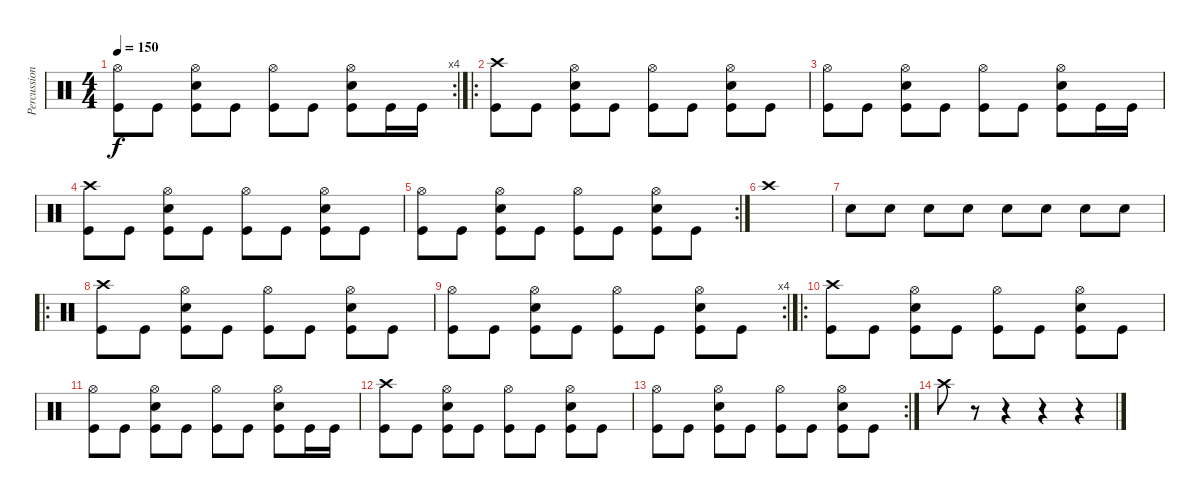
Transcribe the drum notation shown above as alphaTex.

\track ("Percussion" "Percussion") {instrument percussion}
\staff {score}
\articulation defaults
\rc 4
\ts (4 4)
\tempo 150
\clef neutral
\ks c
("Hi-Hat (open)" "Kick (hit)").8{dy f} "Kick (hit)".8 ("Hi-Hat (open)" "Snare (hit) 2" "Kick (hit)").8 "Kick (hit)".8 ("Hi-Hat (open)" "Kick (hit)").8 "Kick (hit)".8 ("Hi-Hat (open)" "Snare (hit) 2" "Kick (hit)").8 "Kick (hit)".16 "Kick (hit)".16 |
\ro
("Crash high (hit)" "Kick (hit)").8 "Kick (hit)".8 ("Hi-Hat (open)" "Snare (hit) 2" "Kick (hit)").8 "Kick (hit)".8 ("Hi-Hat (open)" "Kick (hit)").8 "Kick (hit)".8 ("Hi-Hat (open)" "Snare (hit) 2" "Kick (hit)").8 "Kick (hit)".8 |
("Hi-Hat (open)" "Kick (hit)").8 "Kick (hit)".8 ("Hi-Hat (open)" "Snare (hit) 2" "Kick (hit)").8 "Kick (hit)".8 ("Hi-Hat (open)" "Kick (hit)").8 "Kick (hit)".8 ("Hi-Hat (open)" "Snare (hit) 2" "Kick (hit)").8 "Kick (hit)".16 "Kick (hit)".16 |
("Crash high (hit)" "Kick (hit)").8 "Kick (hit)".8 ("Hi-Hat (open)" "Snare (hit) 2" "Kick (hit)").8 "Kick (hit)".8 ("Hi-Hat (open)" "Kick (hit)").8 "Kick (hit)".8 ("Hi-Hat (open)" "Snare (hit) 2" "Kick (hit)").8 "Kick (hit)".8 |
\rc 2
("Hi-Hat (open)" "Kick (hit)").8 "Kick (hit)".8 ("Hi-Hat (open)" "Snare (hit) 2" "Kick (hit)").8 "Kick (hit)".8 ("Hi-Hat (open)" "Kick (hit)").8 "Kick (hit)".8 ("Hi-Hat (open)" "Snare (hit) 2" "Kick (hit)").8 "Kick (hit)".8 |
"Crash high (hit)".1 |
"Snare (hit) 2".8 "Snare (hit) 2".8 "Snare (hit) 2".8 "Snare (hit) 2".8 "Snare (hit) 2".8 "Snare (hit) 2".8 "Snare (hit) 2".8 "Snare (hit) 2".8 |
\ro
("Crash high (hit)" "Kick (hit)").8 "Kick (hit)".8 ("Hi-Hat (open)" "Snare (hit) 2" "Kick (hit)").8 "Kick (hit)".8 ("Hi-Hat (open)" "Kick (hit)").8 "Kick (hit)".8 ("Hi-Hat (open)" "Snare (hit) 2" "Kick (hit)").8 "Kick (hit)".8 |
\rc 4
("Hi-Hat (open)" "Kick (hit)").8 "Kick (hit)".8 ("Hi-Hat (open)" "Snare (hit) 2" "Kick (hit)").8 "Kick (hit)".8 ("Hi-Hat (open)" "Kick (hit)").8 "Kick (hit)".8 ("Hi-Hat (open)" "Snare (hit) 2" "Kick (hit)").8 "Kick (hit)".8 |
\ro
("Crash high (hit)" "Kick (hit)").8 "Kick (hit)".8 ("Hi-Hat (open)" "Snare (hit) 2" "Kick (hit)").8 "Kick (hit)".8 ("Hi-Hat (open)" "Kick (hit)").8 "Kick (hit)".8 ("Hi-Hat (open)" "Snare (hit) 2" "Kick (hit)").8 "Kick (hit)".8 |
("Hi-Hat (open)" "Kick (hit)").8 "Kick (hit)".8 ("Hi-Hat (open)" "Snare (hit) 2" "Kick (hit)").8 "Kick (hit)".8 ("Hi-Hat (open)" "Kick (hit)").8 "Kick (hit)".8 ("Hi-Hat (open)" "Snare (hit) 2" "Kick (hit)").8 "Kick (hit)".16 "Kick (hit)".16 |
("Crash high (hit)" "Kick (hit)").8 "Kick (hit)".8 ("Hi-Hat (open)" "Snare (hit) 2" "Kick (hit)").8 "Kick (hit)".8 ("Hi-Hat (open)" "Kick (hit)").8 "Kick (hit)".8 ("Hi-Hat (open)" "Snare (hit) 2" "Kick (hit)").8 "Kick (hit)".8 |
\rc 2
("Hi-Hat (open)" "Kick (hit)").8 "Kick (hit)".8 ("Hi-Hat (open)" "Snare (hit) 2" "Kick (hit)").8 "Kick (hit)".8 ("Hi-Hat (open)" "Kick (hit)").8 "Kick (hit)".8 ("Hi-Hat (open)" "Snare (hit) 2" "Kick (hit)").8 "Kick (hit)".8 |
"Crash high (hit)".8 r.8 r.4 r.4 r.4
